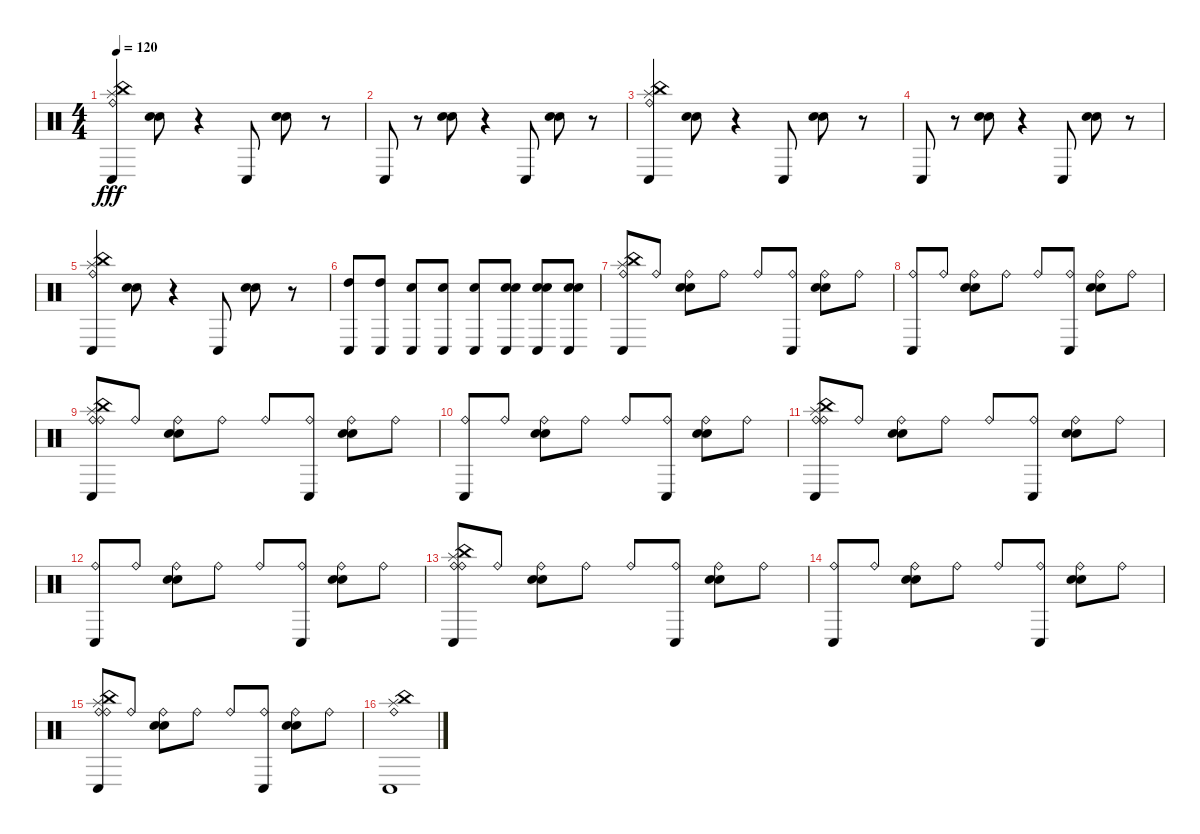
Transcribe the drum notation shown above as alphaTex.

\track "" {instrument percussion}
\staff {score}
\articulation defaults
\ts (4 4)
\tempo 120
\clef neutral
\ks c
("Conga low (hit)" "Splash (hit)" "Ride (bell)" "China (hit)").4{dy fff} ("Electric Snare (hit)" "Snare (hit) 2").8 r.4 "Conga low (hit)".8 ("Electric Snare (hit)" "Snare (hit) 2").8 r.8 |
"Conga low (hit)".8 r.8 ("Electric Snare (hit)" "Snare (hit) 2").8 r.4 "Conga low (hit)".8 ("Electric Snare (hit)" "Snare (hit) 2").8 r.8 |
("Conga low (hit)" "Splash (hit)" "Ride (bell)" "China (hit)").4 ("Electric Snare (hit)" "Snare (hit) 2").8 r.4 "Conga low (hit)".8 ("Electric Snare (hit)" "Snare (hit) 2").8 r.8 |
"Conga low (hit)".8 r.8 ("Electric Snare (hit)" "Snare (hit) 2").8 r.4 "Conga low (hit)".8 ("Electric Snare (hit)" "Snare (hit) 2").8 r.8 |
("Conga low (hit)" "Splash (hit)" "Ride (bell)" "China (hit)").4 ("Electric Snare (hit)" "Snare (hit) 2").8 r.4 "Conga low (hit)".8 ("Electric Snare (hit)" "Snare (hit) 2").8 r.8 |
("Conga low (hit)" "High Tom (hit)").8 ("Conga low (hit)" "High Tom (hit)").8 ("Conga low (hit)" "Electric Snare (hit)").8 ("Conga low (hit)" "Electric Snare (hit)").8 ("Conga low (hit)" "Electric Snare (hit)").8 ("Conga low (hit)" "Electric Snare (hit)" "Snare (hit) 2").8 ("Conga low (hit)" "Electric Snare (hit)" "Snare (hit) 2").8 ("Conga low (hit)" "Electric Snare (hit)" "Snare (hit) 2").8 |
("Conga low (hit)" "Splash (hit)" "China (hit)" "Ride (bell)").8 "Ride (bell)".8 ("Electric Snare (hit)" "Snare (hit) 2" "Ride (bell)").8 "Ride (bell)".8 "Ride (bell)".8 ("Conga low (hit)" "Ride (bell)").8 ("Electric Snare (hit)" "Snare (hit) 2" "Ride (bell)").8 "Ride (bell)".8 |
("Conga low (hit)" "Ride (bell)").8 "Ride (bell)".8 ("Electric Snare (hit)" "Snare (hit) 2" "Ride (bell)").8 "Ride (bell)".8 "Ride (bell)".8 ("Conga low (hit)" "Ride (bell)").8 ("Electric Snare (hit)" "Snare (hit) 2" "Ride (bell)").8 "Ride (bell)".8 |
("Conga low (hit)" "Splash (hit)" "Ride (bell)" "China (hit)" "Ride (bell)").8 "Ride (bell)".8 ("Electric Snare (hit)" "Snare (hit) 2" "Ride (bell)").8 "Ride (bell)".8 "Ride (bell)".8 ("Conga low (hit)" "Ride (bell)").8 ("Electric Snare (hit)" "Snare (hit) 2" "Ride (bell)").8 "Ride (bell)".8 |
("Conga low (hit)" "Ride (bell)").8 "Ride (bell)".8 ("Electric Snare (hit)" "Snare (hit) 2" "Ride (bell)").8 "Ride (bell)".8 "Ride (bell)".8 ("Conga low (hit)" "Ride (bell)").8 ("Electric Snare (hit)" "Snare (hit) 2" "Ride (bell)").8 "Ride (bell)".8 |
("Conga low (hit)" "Splash (hit)" "Ride (bell)" "China (hit)" "Ride (bell)").8 "Ride (bell)".8 ("Electric Snare (hit)" "Snare (hit) 2" "Ride (bell)").8 "Ride (bell)".8 "Ride (bell)".8 ("Conga low (hit)" "Ride (bell)").8 ("Electric Snare (hit)" "Snare (hit) 2" "Ride (bell)").8 "Ride (bell)".8 |
("Conga low (hit)" "Ride (bell)").8 "Ride (bell)".8 ("Electric Snare (hit)" "Snare (hit) 2" "Ride (bell)").8 "Ride (bell)".8 "Ride (bell)".8 ("Conga low (hit)" "Ride (bell)").8 ("Electric Snare (hit)" "Snare (hit) 2" "Ride (bell)").8 "Ride (bell)".8 |
("Conga low (hit)" "Splash (hit)" "Ride (bell)" "China (hit)" "Ride (bell)").8 "Ride (bell)".8 ("Electric Snare (hit)" "Snare (hit) 2" "Ride (bell)").8 "Ride (bell)".8 "Ride (bell)".8 ("Conga low (hit)" "Ride (bell)").8 ("Electric Snare (hit)" "Snare (hit) 2" "Ride (bell)").8 "Ride (bell)".8 |
("Conga low (hit)" "Ride (bell)").8 "Ride (bell)".8 ("Electric Snare (hit)" "Snare (hit) 2" "Ride (bell)").8 "Ride (bell)".8 "Ride (bell)".8 ("Conga low (hit)" "Ride (bell)").8 ("Electric Snare (hit)" "Snare (hit) 2" "Ride (bell)").8 "Ride (bell)".8 |
("Conga low (hit)" "Splash (hit)" "Ride (bell)" "China (hit)" "Ride (bell)").8 "Ride (bell)".8 ("Electric Snare (hit)" "Snare (hit) 2" "Ride (bell)").8 "Ride (bell)".8 "Ride (bell)".8 ("Conga low (hit)" "Ride (bell)").8 ("Electric Snare (hit)" "Snare (hit) 2" "Ride (bell)").8 "Ride (bell)".8 |
("China (hit)" "Splash (hit)" "Ride (bell)" "Conga low (hit)").1
